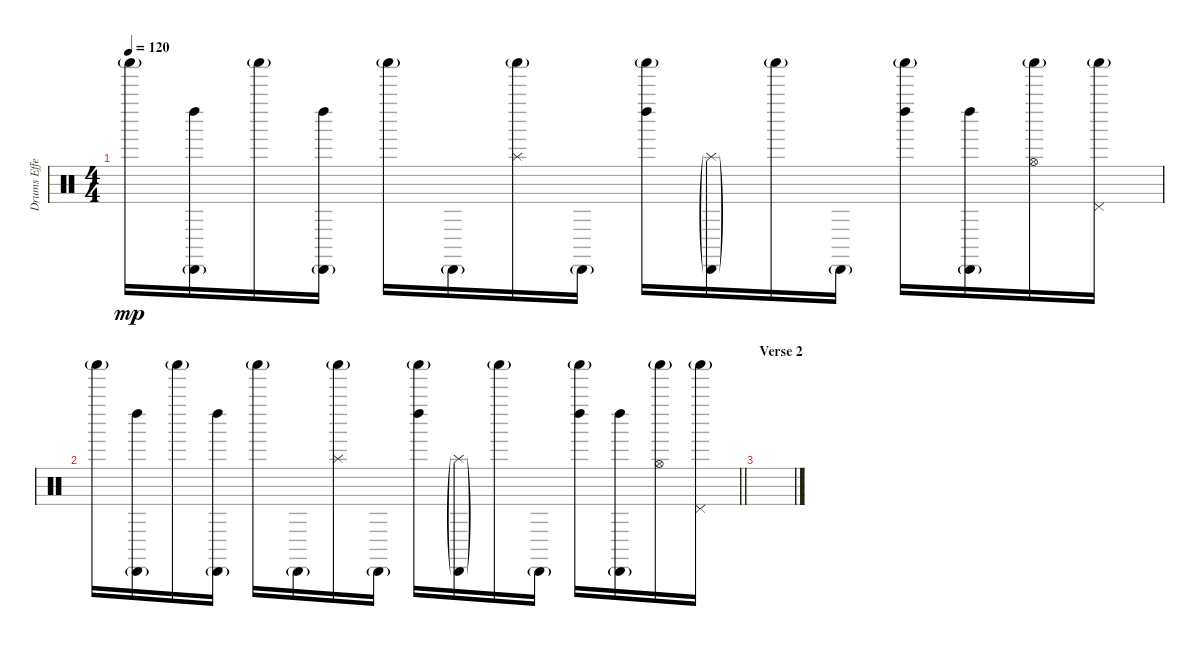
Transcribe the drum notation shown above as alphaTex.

\track ("Drums Effects" "Drums Effe") {instrument percussion}
\staff {score}
\articulation defaults
\ts (4 4)
\tempo 120
\clef neutral
\ks c "Shaker (hit)"{g}.16{dy mp}
("Cabasa (hit)"{g} "Left Maraca (hit)").16 "Shaker (hit)"{g}.16 ("Cabasa (hit)"{g} "Left Maraca (hit)").16 "Shaker (hit)"{g}.16 "Cabasa (hit)"{g}.16 ("Shaker (hit)"{g} "Splash (hit)").16 "Cabasa (hit)"{g}.16 ("Shaker (hit)"{g} "Left Maraca (hit)").16 ("Cabasa (hit)"{g} "Splash (hit)"{g}).16 "Shaker (hit)"{g}.16 "Cabasa (hit)"{g}.16 ("Shaker (hit)"{g} "Left Maraca (hit)").16 ("Cabasa (hit)"{g} "Left Maraca (hit)").16 ("Shaker (hit)"{g} "Hi-Hat (open)").16 ("Shaker (hit)"{g} "Pedal Hi-Hat (hit)").16 |
\barLineRight lightlight "Shaker (hit)"{g}.16
("Cabasa (hit)"{g} "Left Maraca (hit)").16 "Shaker (hit)"{g}.16 ("Cabasa (hit)"{g} "Left Maraca (hit)").16 "Shaker (hit)"{g}.16 "Cabasa (hit)"{g}.16 ("Shaker (hit)"{g} "Splash (hit)").16 "Cabasa (hit)"{g}.16 ("Shaker (hit)"{g} "Left Maraca (hit)").16 ("Cabasa (hit)"{g} "Splash (hit)"{g}).16 "Shaker (hit)"{g}.16 "Cabasa (hit)"{g}.16 ("Shaker (hit)"{g} "Left Maraca (hit)").16 ("Cabasa (hit)"{g} "Left Maraca (hit)").16 ("Shaker (hit)"{g} "Hi-Hat (open)").16 ("Shaker (hit)"{g} "Pedal Hi-Hat (hit)").16 |
\section ("" "Verse 2")
